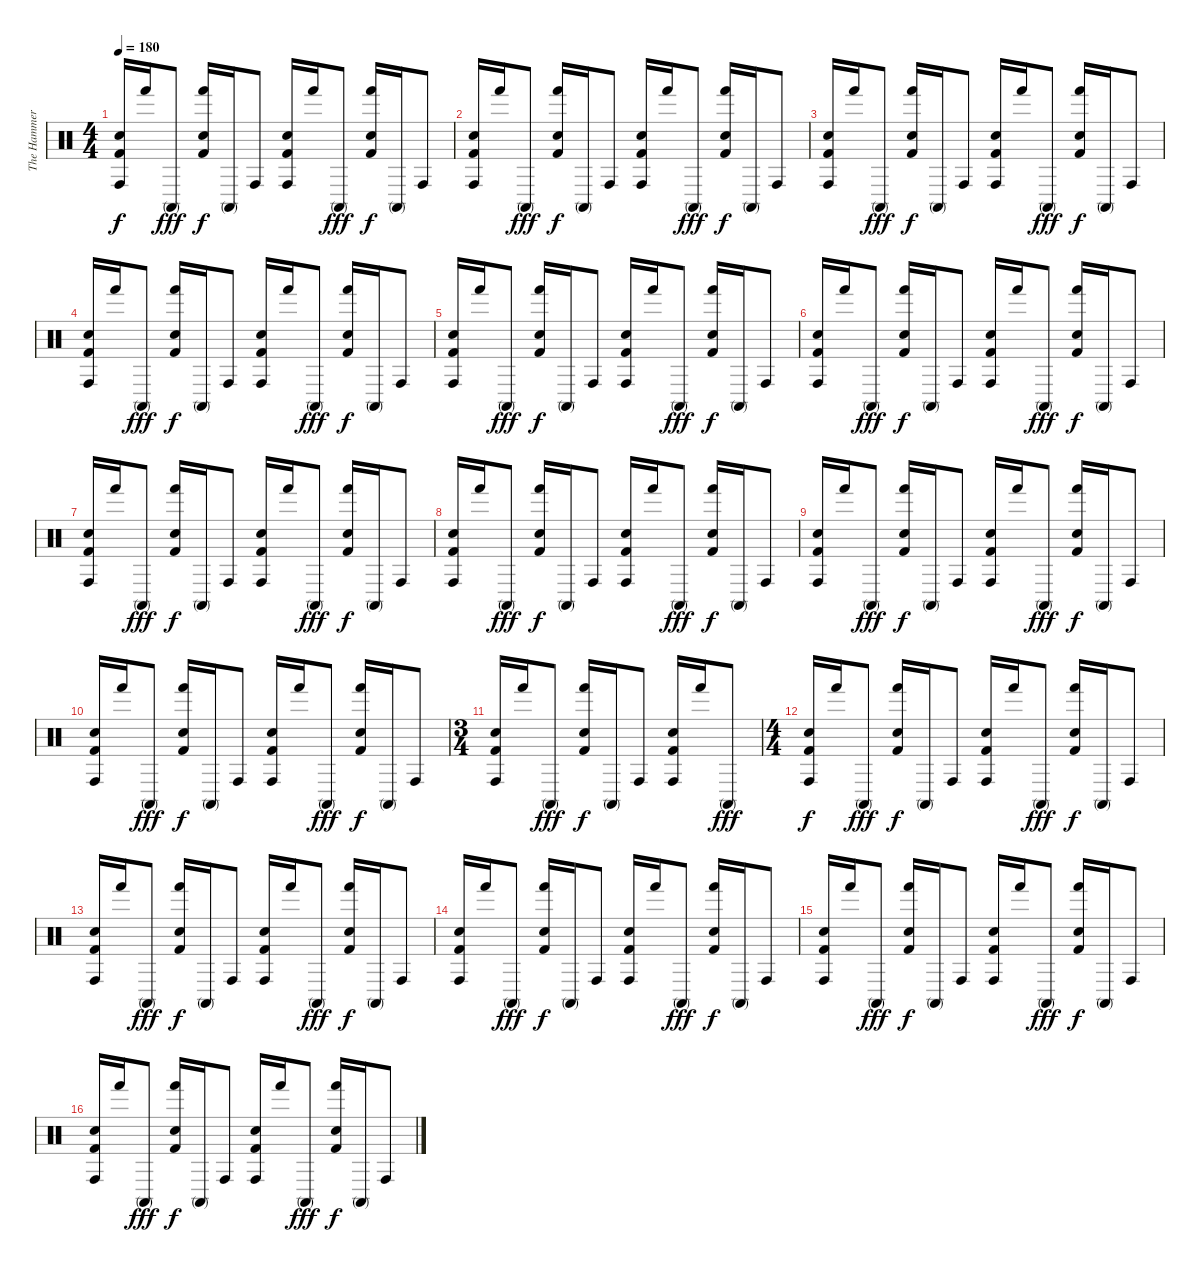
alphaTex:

\track ("The Hammer" "The Hammer") {instrument percussion}
\staff {score}
\articulation defaults
\ts (4 4)
\tempo 180
\clef neutral
\ks c
("Conga high (hit)" "Hand Clap (hit)" "Kick (hit) 2").16{dy f} "Hand (hit)".16 "Conga high (mute)".8{dy fff} ("Hand (hit)" "Hand Clap (hit)" "Kick (hit) 2").16{dy f} "Conga high (mute)".16 "Conga high (hit)".8 ("Conga high (hit)" "Hand Clap (hit)" "Kick (hit) 2").16 "Hand (hit)".16 "Conga high (mute)".8{dy fff} ("Hand (hit)" "Hand Clap (hit)" "Kick (hit) 2").16{dy f} "Conga high (mute)".16 "Conga high (hit)".8 |
("Conga high (hit)" "Hand Clap (hit)" "Kick (hit) 2").16 "Hand (hit)".16 "Conga high (mute)".8{dy fff} ("Hand (hit)" "Hand Clap (hit)" "Kick (hit) 2").16{dy f} "Conga high (mute)".16 "Conga high (hit)".8 ("Conga high (hit)" "Hand Clap (hit)" "Kick (hit) 2").16 "Hand (hit)".16 "Conga high (mute)".8{dy fff} ("Hand (hit)" "Hand Clap (hit)" "Kick (hit) 2").16{dy f} "Conga high (mute)".16 "Conga high (hit)".8 |
("Conga high (hit)" "Hand Clap (hit)" "Kick (hit) 2").16 "Hand (hit)".16 "Conga high (mute)".8{dy fff} ("Hand (hit)" "Hand Clap (hit)" "Kick (hit) 2").16{dy f} "Conga high (mute)".16 "Conga high (hit)".8 ("Conga high (hit)" "Hand Clap (hit)" "Kick (hit) 2").16 "Hand (hit)".16 "Conga high (mute)".8{dy fff} ("Hand (hit)" "Hand Clap (hit)" "Kick (hit) 2").16{dy f} "Conga high (mute)".16 "Conga high (hit)".8 |
("Conga high (hit)" "Hand Clap (hit)" "Kick (hit) 2").16 "Hand (hit)".16 "Conga high (mute)".8{dy fff} ("Hand (hit)" "Hand Clap (hit)" "Kick (hit) 2").16{dy f} "Conga high (mute)".16 "Conga high (hit)".8 ("Conga high (hit)" "Hand Clap (hit)" "Kick (hit) 2").16 "Hand (hit)".16 "Conga high (mute)".8{dy fff} ("Hand (hit)" "Hand Clap (hit)" "Kick (hit) 2").16{dy f} "Conga high (mute)".16 "Conga high (hit)".8 |
("Conga high (hit)" "Hand Clap (hit)" "Kick (hit) 2").16 "Hand (hit)".16 "Conga high (mute)".8{dy fff} ("Hand (hit)" "Hand Clap (hit)" "Kick (hit) 2").16{dy f} "Conga high (mute)".16 "Conga high (hit)".8 ("Conga high (hit)" "Hand Clap (hit)" "Kick (hit) 2").16 "Hand (hit)".16 "Conga high (mute)".8{dy fff} ("Hand (hit)" "Hand Clap (hit)" "Kick (hit) 2").16{dy f} "Conga high (mute)".16 "Conga high (hit)".8 |
("Conga high (hit)" "Hand Clap (hit)" "Kick (hit) 2").16 "Hand (hit)".16 "Conga high (mute)".8{dy fff} ("Hand (hit)" "Hand Clap (hit)" "Kick (hit) 2").16{dy f} "Conga high (mute)".16 "Conga high (hit)".8 ("Conga high (hit)" "Hand Clap (hit)" "Kick (hit) 2").16 "Hand (hit)".16 "Conga high (mute)".8{dy fff} ("Hand (hit)" "Hand Clap (hit)" "Kick (hit) 2").16{dy f} "Conga high (mute)".16 "Conga high (hit)".8 |
("Conga high (hit)" "Hand Clap (hit)" "Kick (hit) 2").16 "Hand (hit)".16 "Conga high (mute)".8{dy fff} ("Hand (hit)" "Hand Clap (hit)" "Kick (hit) 2").16{dy f} "Conga high (mute)".16 "Conga high (hit)".8 ("Conga high (hit)" "Hand Clap (hit)" "Kick (hit) 2").16 "Hand (hit)".16 "Conga high (mute)".8{dy fff} ("Hand (hit)" "Hand Clap (hit)" "Kick (hit) 2").16{dy f} "Conga high (mute)".16 "Conga high (hit)".8 |
("Conga high (hit)" "Hand Clap (hit)" "Kick (hit) 2").16 "Hand (hit)".16 "Conga high (mute)".8{dy fff} ("Hand (hit)" "Hand Clap (hit)" "Kick (hit) 2").16{dy f} "Conga high (mute)".16 "Conga high (hit)".8 ("Conga high (hit)" "Hand Clap (hit)" "Kick (hit) 2").16 "Hand (hit)".16 "Conga high (mute)".8{dy fff} ("Hand (hit)" "Hand Clap (hit)" "Kick (hit) 2").16{dy f} "Conga high (mute)".16 "Conga high (hit)".8 |
("Conga high (hit)" "Hand Clap (hit)" "Kick (hit) 2").16 "Hand (hit)".16 "Conga high (mute)".8{dy fff} ("Hand (hit)" "Hand Clap (hit)" "Kick (hit) 2").16{dy f} "Conga high (mute)".16 "Conga high (hit)".8 ("Conga high (hit)" "Hand Clap (hit)" "Kick (hit) 2").16 "Hand (hit)".16 "Conga high (mute)".8{dy fff} ("Hand (hit)" "Hand Clap (hit)" "Kick (hit) 2").16{dy f} "Conga high (mute)".16 "Conga high (hit)".8 |
("Conga high (hit)" "Hand Clap (hit)" "Kick (hit) 2").16 "Hand (hit)".16 "Conga high (mute)".8{dy fff} ("Hand (hit)" "Hand Clap (hit)" "Kick (hit) 2").16{dy f} "Conga high (mute)".16 "Conga high (hit)".8 ("Conga high (hit)" "Hand Clap (hit)" "Kick (hit) 2").16 "Hand (hit)".16 "Conga high (mute)".8{dy fff} ("Hand (hit)" "Hand Clap (hit)" "Kick (hit) 2").16{dy f} "Conga high (mute)".16 "Conga high (hit)".8 |
\ts (3 4)
("Conga high (hit)" "Hand Clap (hit)" "Kick (hit) 2").16 "Hand (hit)".16 "Conga high (mute)".8{dy fff} ("Hand (hit)" "Hand Clap (hit)" "Kick (hit) 2").16{dy f} "Conga high (mute)".16 "Conga high (hit)".8 ("Conga high (hit)" "Hand Clap (hit)" "Kick (hit) 2").16 "Hand (hit)".16 "Conga high (mute)".8{dy fff} |
\ts (4 4)
("Conga high (hit)" "Hand Clap (hit)" "Kick (hit) 2").16{dy f} "Hand (hit)".16 "Conga high (mute)".8{dy fff} ("Hand (hit)" "Hand Clap (hit)" "Kick (hit) 2").16{dy f} "Conga high (mute)".16 "Conga high (hit)".8 ("Conga high (hit)" "Hand Clap (hit)" "Kick (hit) 2").16 "Hand (hit)".16 "Conga high (mute)".8{dy fff} ("Hand (hit)" "Hand Clap (hit)" "Kick (hit) 2").16{dy f} "Conga high (mute)".16 "Conga high (hit)".8 |
("Conga high (hit)" "Hand Clap (hit)" "Kick (hit) 2").16 "Hand (hit)".16 "Conga high (mute)".8{dy fff} ("Hand (hit)" "Hand Clap (hit)" "Kick (hit) 2").16{dy f} "Conga high (mute)".16 "Conga high (hit)".8 ("Conga high (hit)" "Hand Clap (hit)" "Kick (hit) 2").16 "Hand (hit)".16 "Conga high (mute)".8{dy fff} ("Hand (hit)" "Hand Clap (hit)" "Kick (hit) 2").16{dy f} "Conga high (mute)".16 "Conga high (hit)".8 |
("Conga high (hit)" "Hand Clap (hit)" "Kick (hit) 2").16 "Hand (hit)".16 "Conga high (mute)".8{dy fff} ("Hand (hit)" "Hand Clap (hit)" "Kick (hit) 2").16{dy f} "Conga high (mute)".16 "Conga high (hit)".8 ("Conga high (hit)" "Hand Clap (hit)" "Kick (hit) 2").16 "Hand (hit)".16 "Conga high (mute)".8{dy fff} ("Hand (hit)" "Hand Clap (hit)" "Kick (hit) 2").16{dy f} "Conga high (mute)".16 "Conga high (hit)".8 |
("Conga high (hit)" "Hand Clap (hit)" "Kick (hit) 2").16 "Hand (hit)".16 "Conga high (mute)".8{dy fff} ("Hand (hit)" "Hand Clap (hit)" "Kick (hit) 2").16{dy f} "Conga high (mute)".16 "Conga high (hit)".8 ("Conga high (hit)" "Hand Clap (hit)" "Kick (hit) 2").16 "Hand (hit)".16 "Conga high (mute)".8{dy fff} ("Hand (hit)" "Hand Clap (hit)" "Kick (hit) 2").16{dy f} "Conga high (mute)".16 "Conga high (hit)".8 |
("Conga high (hit)" "Hand Clap (hit)" "Kick (hit) 2").16 "Hand (hit)".16 "Conga high (mute)".8{dy fff} ("Hand (hit)" "Hand Clap (hit)" "Kick (hit) 2").16{dy f} "Conga high (mute)".16 "Conga high (hit)".8 ("Conga high (hit)" "Hand Clap (hit)" "Kick (hit) 2").16 "Hand (hit)".16 "Conga high (mute)".8{dy fff} ("Hand (hit)" "Hand Clap (hit)" "Kick (hit) 2").16{dy f} "Conga high (mute)".16 "Conga high (hit)".8
